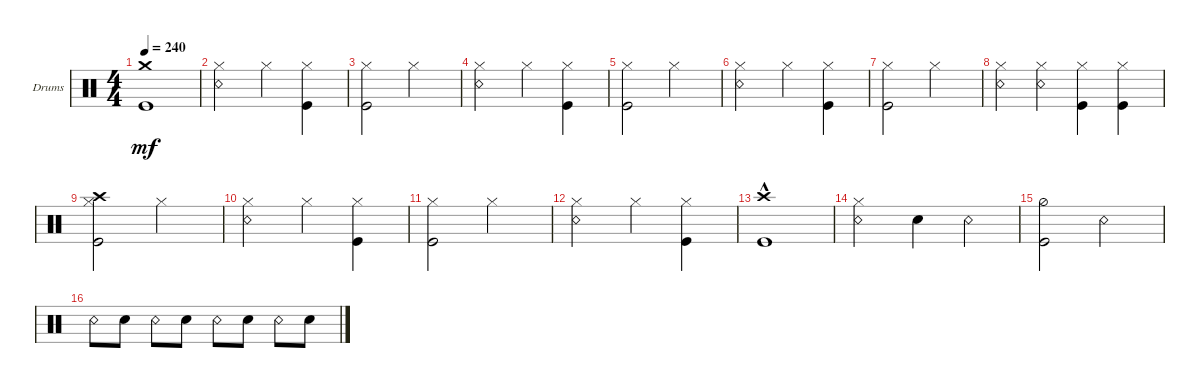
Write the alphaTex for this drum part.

\defaultSystemsLayout 4
\bracketExtendMode groupsimilarinstruments
\firstSystemTrackNameOrientation horizontal
\otherSystemsTrackNameOrientation horizontal
\track ("Drumkit" "Drums") {instrument percussion}
\staff {score}
\articulation defaults
\ts (4 4)
\tempo 240
\clef neutral
\ks c
("Crash medium (hit)" "Kick (hit)").1{dy mf} |
("Snare (rim shot)" "Hi-Hat (closed)").2 "Hi-Hat (closed)".4 ("Kick (hit)" "Hi-Hat (closed)").4 |
("Kick (hit)" "Hi-Hat (closed)").2 "Hi-Hat (closed)".2 |
("Snare (rim shot)" "Hi-Hat (closed)").2 "Hi-Hat (closed)".4 ("Kick (hit)" "Hi-Hat (closed)").4 |
("Kick (hit)" "Hi-Hat (closed)").2 "Hi-Hat (closed)".2 |
("Snare (rim shot)" "Hi-Hat (closed)").2 "Hi-Hat (closed)".4 ("Kick (hit)" "Hi-Hat (closed)").4 |
("Kick (hit)" "Hi-Hat (closed)").2 "Hi-Hat (closed)".2 |
("Snare (rim shot)" "Hi-Hat (closed)").4 ("Snare (rim shot)" "Hi-Hat (closed)").4 ("Kick (hit)" "Hi-Hat (closed)").4 ("Kick (hit)" "Hi-Hat (closed)").4 |
("Kick (hit)" "Hi-Hat (closed)" "Crash high (hit)").2 "Hi-Hat (closed)".2 |
("Snare (rim shot)" "Hi-Hat (closed)").2 "Hi-Hat (closed)".4 ("Kick (hit)" "Hi-Hat (closed)").4 |
("Kick (hit)" "Hi-Hat (closed)").2 "Hi-Hat (closed)".2 |
("Snare (rim shot)" "Hi-Hat (closed)").2 "Hi-Hat (closed)".4 ("Kick (hit)" "Hi-Hat (closed)").4 |
("Crash high (hit)"{hac} "Kick (hit)"{hac}).1 |
("Snare (rim shot)" "Hi-Hat (closed)").2 "Snare (hit) 2".4 "Snare (rim shot)".4 |
("Kick (hit)" "Hi-Hat (half)").2 "Snare (rim shot)".2 |
"Snare (rim shot)".8 "Snare (hit) 2".8 "Snare (rim shot)".8 "Snare (hit) 2".8 "Snare (rim shot)".8 "Snare (hit) 2".8 "Snare (rim shot)".8 "Snare (hit) 2".8
